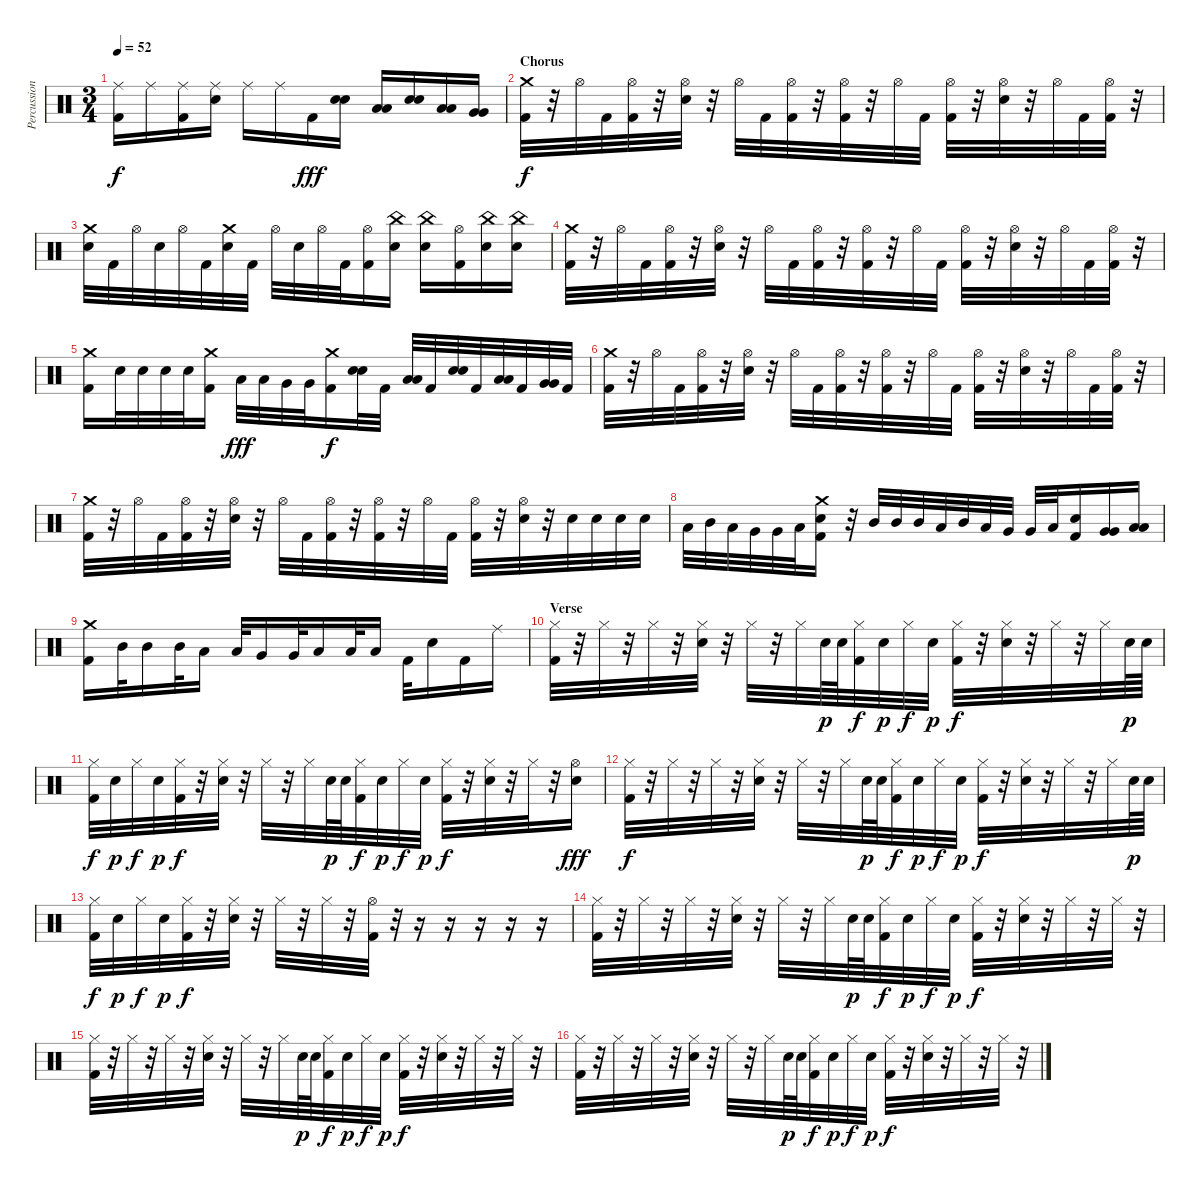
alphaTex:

\track ("Percussion" "Percussion") {instrument percussion}
\staff {score}
\articulation defaults
\ts (3 4)
\tempo 52
\clef neutral
\ks c
("Ride (middle)" "Kick (hit) 2").16{dy f} "Ride (middle)".16 ("Ride (middle)" "Kick (hit) 2").16 ("Ride (middle)" "Snare (hit) 2").16 "Ride (middle)".16 "Ride (middle)".16 "Kick (hit) 2".16{dy fff} ("Snare (hit) 2" "Snare (hit) 2").16 ("Low Tom (hit)" "Low Tom (hit)").16 ("Snare (hit) 2" "Snare (hit) 2").16 ("Low Tom (hit)" "Low Tom (hit)").16 ("Very Low Tom (hit)" "Very Low Tom (hit)").16 |
\section ("" "Chorus")
("Crash medium (hit)" "Kick (hit) 2").32{dy f} r.32 "Hi-Hat (open)".32 "Kick (hit) 2".32 ("Hi-Hat (open)" "Kick (hit) 2").32 r.32 ("Hi-Hat (open)" "Snare (hit) 2").32 r.32 "Hi-Hat (open)".32 "Kick (hit) 2".32 ("Hi-Hat (open)" "Kick (hit) 2").32 r.32 ("Hi-Hat (open)" "Kick (hit) 2").32 r.32 "Hi-Hat (open)".32 "Kick (hit) 2".32 ("Hi-Hat (open)" "Kick (hit) 2").32 r.32 ("Hi-Hat (open)" "Snare (hit) 2").32 r.32 "Hi-Hat (open)".32 "Kick (hit) 2".32 ("Hi-Hat (open)" "Kick (hit) 2").32 r.32 |
("Crash medium (hit)" "Snare (hit) 2").32 "Kick (hit) 2".32 "Hi-Hat (open)".32 "Snare (hit) 2".32 "Hi-Hat (open)".32 "Kick (hit) 2".32 ("Crash medium (hit)" "Snare (hit) 2").32 "Kick (hit) 2".32 "Hi-Hat (open)".32 "Snare (hit) 2".32 "Hi-Hat (open)".32 "Kick (hit) 2".32 ("Hi-Hat (open)" "Kick (hit) 2").16 ("China (hit)" "Snare (hit) 2").16 ("China (hit)" "Snare (hit) 2").16 ("Hi-Hat (open)" "Kick (hit) 2").16 ("China (hit)" "Snare (hit) 2").16 ("China (hit)" "Snare (hit) 2").16 |
("Crash medium (hit)" "Kick (hit) 2").32 r.32 "Hi-Hat (open)".32 "Kick (hit) 2".32 ("Hi-Hat (open)" "Kick (hit) 2").32 r.32 ("Hi-Hat (open)" "Snare (hit) 2").32 r.32 "Hi-Hat (open)".32 "Kick (hit) 2".32 ("Hi-Hat (open)" "Kick (hit) 2").32 r.32 ("Hi-Hat (open)" "Kick (hit) 2").32 r.32 "Hi-Hat (open)".32 "Kick (hit) 2".32 ("Hi-Hat (open)" "Kick (hit) 2").32 r.32 ("Hi-Hat (open)" "Snare (hit) 2").32 r.32 "Hi-Hat (open)".32 "Kick (hit) 2".32 ("Hi-Hat (open)" "Kick (hit) 2").32 r.32 |
("Crash medium (hit)" "Kick (hit) 2").16 "Snare (hit) 2".32 "Snare (hit) 2".32 "Snare (hit) 2".32 "Snare (hit) 2".32 ("Crash medium (hit)" "Kick (hit) 2").16 "Low Tom (hit)".32{dy fff} "Low Tom (hit)".32 "Very Low Tom (hit)".32 "Very Low Tom (hit)".32 ("Crash medium (hit)" "Kick (hit) 2").16{dy f} ("Snare (hit) 2" "Snare (hit) 2").32 "Kick (hit) 2".32 ("Low Tom (hit)" "Low Tom (hit)").32 "Kick (hit) 2".32 ("Snare (hit) 2" "Snare (hit) 2").32 "Kick (hit) 2".32 ("Low Tom (hit)" "Low Tom (hit)").32 "Kick (hit) 2".32 ("Very Low Tom (hit)" "Very Low Tom (hit)").32 "Kick (hit) 2".32 |
("Crash medium (hit)" "Kick (hit) 2").32 r.32 "Hi-Hat (open)".32 "Kick (hit) 2".32 ("Hi-Hat (open)" "Kick (hit) 2").32 r.32 ("Hi-Hat (open)" "Snare (hit) 2").32 r.32 "Hi-Hat (open)".32 "Kick (hit) 2".32 ("Hi-Hat (open)" "Kick (hit) 2").32 r.32 ("Hi-Hat (open)" "Kick (hit) 2").32 r.32 "Hi-Hat (open)".32 "Kick (hit) 2".32 ("Hi-Hat (open)" "Kick (hit) 2").32 r.32 ("Hi-Hat (open)" "Snare (hit) 2").32 r.32 "Hi-Hat (open)".32 "Kick (hit) 2".32 ("Hi-Hat (open)" "Kick (hit) 2").32 r.32 |
("Crash medium (hit)" "Kick (hit) 2").32 r.32 "Hi-Hat (open)".32 "Kick (hit) 2".32 ("Hi-Hat (open)" "Kick (hit) 2").32 r.32 ("Hi-Hat (open)" "Snare (hit) 2").32 r.32 "Hi-Hat (open)".32 "Kick (hit) 2".32 ("Hi-Hat (open)" "Kick (hit) 2").32 r.32 ("Hi-Hat (open)" "Kick (hit) 2").32 r.32 "Hi-Hat (open)".32 "Kick (hit) 2".32 ("Hi-Hat (open)" "Kick (hit) 2").32 r.32 ("Hi-Hat (open)" "Snare (hit) 2").32 r.32 "Snare (hit) 2".32 "Snare (hit) 2".32 "Snare (hit) 2".32 "Snare (hit) 2".32 |
"Low Tom (hit)".32 "Mid Tom (hit)".32 "Low Tom (hit)".32 "Very Low Tom (hit)".32 "Very Low Tom (hit)".32 "Low Floor Tom (hit)".32 ("Crash medium (hit)" "Snare (hit) 2" "Kick (hit) 2").16 r.32 "Mid Tom (hit)".32 "Mid Tom (hit)".32 "Mid Tom (hit)".32 "Low Tom (hit)".32 "Mid Tom (hit)".32 "Low Tom (hit)".32 "Very Low Tom (hit)".32 "Very Low Tom (hit)".32 "Low Floor Tom (hit)".32 ("Snare (hit) 2" "Kick (hit) 2").16 ("Very Low Tom (hit)" "Very Low Tom (hit)").16 ("Low Tom (hit)" "Low Tom (hit)").16 |
("Crash medium (hit)" "Kick (hit) 2").16 "Mid Tom (hit)".32 "Mid Tom (hit)".16 "Mid Tom (hit)".32 "Low Tom (hit)".16 "Low Tom (hit)".32 "Very Low Tom (hit)".16 "Very Low Tom (hit)".32 "Low Floor Tom (hit)".16 "Low Floor Tom (hit)".32 "Low Floor Tom (hit)".16 "Kick (hit) 2".32 "Snare (hit) 2".16 "Kick (hit) 2".16 "Ride (middle)".16 |
\section ("" "Verse")
("Hi-Hat (closed)" "Kick (hit) 2").32 r.32 "Hi-Hat (closed)".32 r.32 "Hi-Hat (closed)".32 r.32 ("Hi-Hat (closed)" "Snare (hit) 2").32 r.32 "Hi-Hat (closed)".32 r.32 "Hi-Hat (closed)".32 "Snare (hit) 2".64{dy p} "Snare (hit) 2".64 ("Hi-Hat (closed)" "Kick (hit) 2").32{dy f} "Snare (hit) 2".32{dy p} "Hi-Hat (closed)".32{dy f} "Snare (hit) 2".32{dy p} ("Hi-Hat (closed)" "Kick (hit) 2").32{dy f} r.32 ("Hi-Hat (closed)" "Snare (hit) 2").32 r.32 "Hi-Hat (closed)".32 r.32 "Hi-Hat (closed)".32 "Snare (hit) 2".64{dy p} "Snare (hit) 2".64 |
("Hi-Hat (closed)" "Kick (hit) 2").32{dy f} "Snare (hit) 2".32{dy p} "Hi-Hat (closed)".32{dy f} "Snare (hit) 2".32{dy p} ("Hi-Hat (closed)" "Kick (hit) 2").32{dy f} r.32 ("Hi-Hat (closed)" "Snare (hit) 2").32 r.32 "Hi-Hat (closed)".32 r.32 "Hi-Hat (closed)".32 "Snare (hit) 2".64{dy p} "Snare (hit) 2".64 ("Hi-Hat (closed)" "Kick (hit) 2").32{dy f} "Snare (hit) 2".32{dy p} "Hi-Hat (closed)".32{dy f} "Snare (hit) 2".32{dy p} ("Hi-Hat (closed)" "Kick (hit) 2").32{dy f} r.32 ("Hi-Hat (closed)" "Snare (hit) 2").32 r.32 "Hi-Hat (closed)".32 r.32 ("Hi-Hat (open)" "Snare (hit) 2").16{dy fff} |
("Hi-Hat (closed)" "Kick (hit) 2").32{dy f} r.32 "Hi-Hat (closed)".32 r.32 "Hi-Hat (closed)".32 r.32 ("Hi-Hat (closed)" "Snare (hit) 2").32 r.32 "Hi-Hat (closed)".32 r.32 "Hi-Hat (closed)".32 "Snare (hit) 2".64{dy p} "Snare (hit) 2".64 ("Hi-Hat (closed)" "Kick (hit) 2").32{dy f} "Snare (hit) 2".32{dy p} "Hi-Hat (closed)".32{dy f} "Snare (hit) 2".32{dy p} ("Hi-Hat (closed)" "Kick (hit) 2").32{dy f} r.32 ("Hi-Hat (closed)" "Snare (hit) 2").32 r.32 "Hi-Hat (closed)".32 r.32 "Hi-Hat (closed)".32 "Snare (hit) 2".64{dy p} "Snare (hit) 2".64 |
("Hi-Hat (closed)" "Kick (hit) 2").32{dy f} "Snare (hit) 2".32{dy p} "Hi-Hat (closed)".32{dy f} "Snare (hit) 2".32{dy p} ("Hi-Hat (closed)" "Kick (hit) 2").32{dy f} r.32 ("Hi-Hat (closed)" "Snare (hit) 2").32 r.32 "Hi-Hat (closed)".32 r.32 "Hi-Hat (closed)".32 r.32 ("Hi-Hat (open)" "Kick (hit) 2").32 r.32 r.16 r.16 r.16 r.16 r.16 |
("Hi-Hat (closed)" "Kick (hit) 2").32 r.32 "Hi-Hat (closed)".32 r.32 "Hi-Hat (closed)".32 r.32 ("Hi-Hat (closed)" "Snare (hit) 2").32 r.32 "Hi-Hat (closed)".32 r.32 "Hi-Hat (closed)".32 "Snare (hit) 2".64{dy p} "Snare (hit) 2".64 ("Hi-Hat (closed)" "Kick (hit) 2").32{dy f} "Snare (hit) 2".32{dy p} "Hi-Hat (closed)".32{dy f} "Snare (hit) 2".32{dy p} ("Hi-Hat (closed)" "Kick (hit) 2").32{dy f} r.32 ("Hi-Hat (closed)" "Snare (hit) 2").32 r.32 "Hi-Hat (closed)".32 r.32 "Hi-Hat (closed)".32 r.32 |
("Hi-Hat (closed)" "Kick (hit) 2").32 r.32 "Hi-Hat (closed)".32 r.32 "Hi-Hat (closed)".32 r.32 ("Hi-Hat (closed)" "Snare (hit) 2").32 r.32 "Hi-Hat (closed)".32 r.32 "Hi-Hat (closed)".32 "Snare (hit) 2".64{dy p} "Snare (hit) 2".64 ("Hi-Hat (closed)" "Kick (hit) 2").32{dy f} "Snare (hit) 2".32{dy p} "Hi-Hat (closed)".32{dy f} "Snare (hit) 2".32{dy p} ("Hi-Hat (closed)" "Kick (hit) 2").32{dy f} r.32 ("Hi-Hat (closed)" "Snare (hit) 2").32 r.32 "Hi-Hat (closed)".32 r.32 "Hi-Hat (closed)".32 r.32 |
("Hi-Hat (closed)" "Kick (hit) 2").32 r.32 "Hi-Hat (closed)".32 r.32 "Hi-Hat (closed)".32 r.32 ("Hi-Hat (closed)" "Snare (hit) 2").32 r.32 "Hi-Hat (closed)".32 r.32 "Hi-Hat (closed)".32 "Snare (hit) 2".64{dy p} "Snare (hit) 2".64 ("Hi-Hat (closed)" "Kick (hit) 2").32{dy f} "Snare (hit) 2".32{dy p} "Hi-Hat (closed)".32{dy f} "Snare (hit) 2".32{dy p} ("Hi-Hat (closed)" "Kick (hit) 2").32{dy f} r.32 ("Hi-Hat (closed)" "Snare (hit) 2").32 r.32 "Hi-Hat (closed)".32 r.32 "Hi-Hat (closed)".32 r.32
